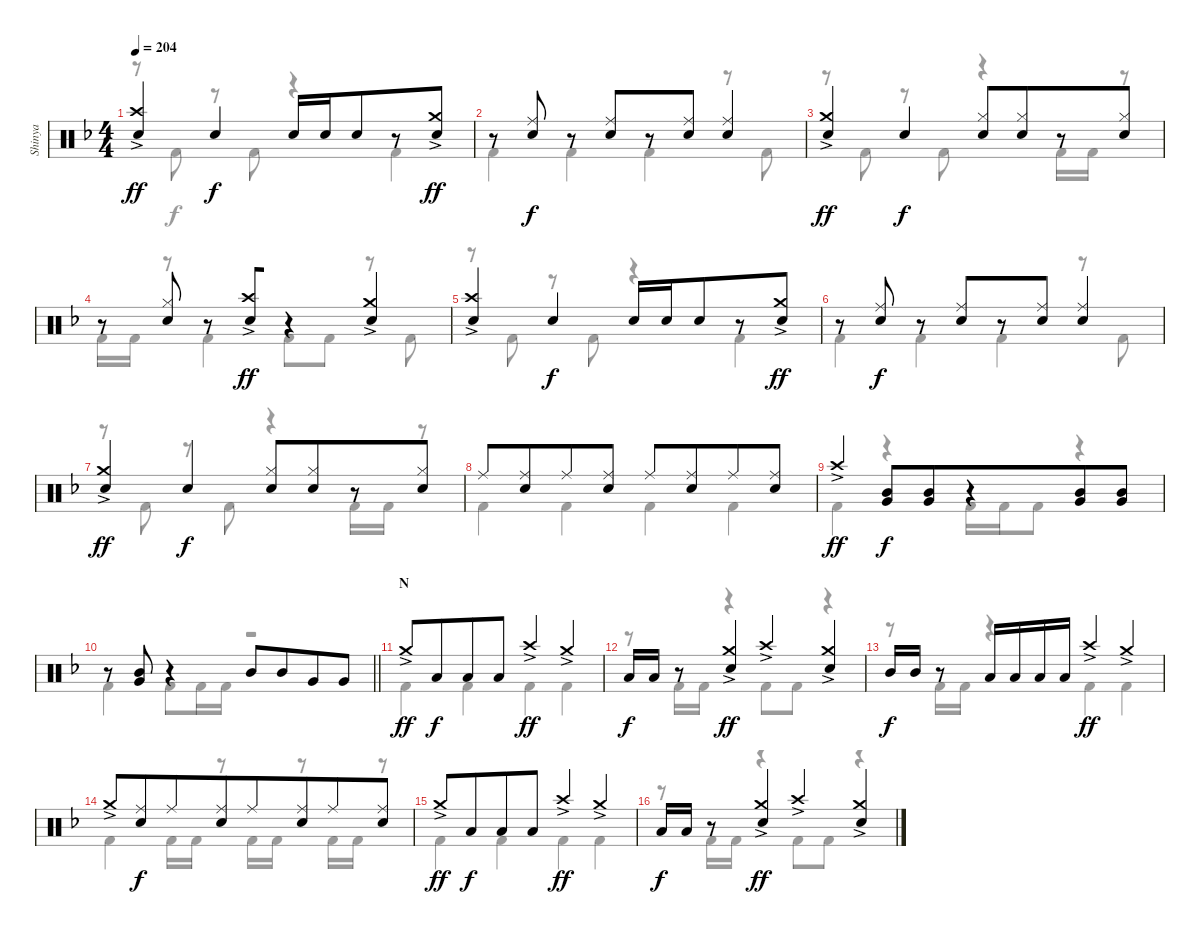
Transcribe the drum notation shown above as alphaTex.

\track ("Shinya" "Shinya") {mute instrument percussion}
\staff {score}
\articulation defaults
\voice
\ts (4 4)
\tempo 204
\clef neutral
\ks f
("Crash high (hit)"{ac} "Snare (hit) 2").4{dy ff} "Snare (hit) 2".4{dy f} "Snare (hit) 2".16{beam merge} "Snare (hit) 2".16 "Snare (hit) 2".8{beam merge} r.8 ("Crash medium (hit)"{ac} "Snare (hit) 2").8{dy ff} |
r.8 ("Ride (middle)" "Snare (hit) 2").8{dy f} r.8{beam merge} ("Ride (middle)" "Snare (hit) 2").8{beam merge} r.8 ("Ride (middle)" "Snare (hit) 2").8{beam merge} ("Ride (middle)" "Snare (hit) 2").4 |
("Crash medium (hit)"{ac} "Snare (hit) 2").4{dy ff} "Snare (hit) 2".4{dy f} ("Hi-Hat (closed)" "Snare (hit) 2").8 ("Hi-Hat (closed)" "Snare (hit) 2").8{beam merge} r.8 ("Hi-Hat (closed)" "Snare (hit) 2").8 |
r.8 ("Hi-Hat (closed)" "Snare (hit) 2").8 r.8{beam merge} ("Crash high (hit)"{ac} "Snare (hit) 2").8{dy ff beam merge} r.4 ("Crash medium (hit)"{ac} "Snare (hit) 2").4 |
("Crash high (hit)"{ac} "Snare (hit) 2").4 "Snare (hit) 2".4{dy f} "Snare (hit) 2".16{beam merge} "Snare (hit) 2".16 "Snare (hit) 2".8{beam merge} r.8 ("Crash medium (hit)"{ac} "Snare (hit) 2").8{dy ff} |
r.8 ("Ride (middle)" "Snare (hit) 2").8{dy f} r.8{beam merge} ("Ride (middle)" "Snare (hit) 2").8{beam merge} r.8 ("Ride (middle)" "Snare (hit) 2").8{beam merge} ("Ride (middle)" "Snare (hit) 2").4 |
("Crash medium (hit)"{ac} "Snare (hit) 2").4{dy ff beam merge} "Snare (hit) 2".4{dy f beam merge} ("Hi-Hat (closed)" "Snare (hit) 2").8 ("Hi-Hat (closed)" "Snare (hit) 2").8{beam merge} r.8 ("Hi-Hat (closed)" "Snare (hit) 2").8 |
"Ride (middle)".8 ("Ride (middle)" "Snare (hit) 2").8{beam merge} "Ride (middle)".8{beam merge} ("Ride (middle)" "Snare (hit) 2").8 "Ride (middle)".8 ("Ride (middle)" "Snare (hit) 2").8{beam merge} "Ride (middle)".8{beam merge} ("Ride (middle)" "Snare (hit) 2").8 |
"Crash high (hit)"{ac}.4{dy ff} ("Mid Tom (hit)" "Very Low Tom (hit)").8{dy f beam merge} ("Mid Tom (hit)" "Very Low Tom (hit)").8{beam merge} r.4 ("Mid Tom (hit)" "Very Low Tom (hit)").8{beam merge} ("Mid Tom (hit)" "Very Low Tom (hit)").8 |
\barLineRight lightlight
r.8 ("Mid Tom (hit)" "Very Low Tom (hit)").8 r.4{beam merge} "Mid Tom (hit)".8{beam merge} "Mid Tom (hit)".8{beam merge} "Very Low Tom (hit)".8{beam merge} "Very Low Tom (hit)".8 |
\section ("" "N")
"Crash medium (hit)"{ac}.8{dy ff} "Low Tom (hit)".8{dy f beam merge} "Low Tom (hit)".8{beam merge} "Low Tom (hit)".8{beam merge} "Crash high (hit)"{ac}.4{dy ff} "Crash medium (hit)"{ac}.4 |
"Low Tom (hit)".16{dy f} "Low Tom (hit)".16 r.8 ("Crash medium (hit)"{ac} "Snare (hit) 2").4{dy ff beam merge} "Crash high (hit)"{ac}.4 ("Crash medium (hit)"{ac} "Snare (hit) 2").4 |
"Mid Tom (hit)".16{dy f} "Mid Tom (hit)".16 r.8 "Low Tom (hit)".16{beam merge} "Low Tom (hit)".16 "Low Tom (hit)".16{beam merge} "Low Tom (hit)".16{beam merge} "Crash high (hit)"{ac}.4{dy ff} "Crash medium (hit)"{ac}.4 |
"Crash medium (hit)"{ac}.8 ("Ride (middle)" "Snare (hit) 2").8{dy f beam merge} "Ride (middle)".8{beam merge} ("Ride (middle)" "Snare (hit) 2").8{beam merge} "Ride (middle)".8 ("Ride (middle)" "Snare (hit) 2").8{beam merge} "Ride (middle)".8 ("Ride (middle)" "Snare (hit) 2").8 |
"Crash medium (hit)"{ac}.8{dy ff} "Low Tom (hit)".8{dy f beam merge} "Low Tom (hit)".8{beam merge} "Low Tom (hit)".8{beam merge} "Crash high (hit)"{ac}.4{dy ff} "Crash medium (hit)"{ac}.4 |
"Low Tom (hit)".16{dy f} "Low Tom (hit)".16 r.8 ("Crash medium (hit)"{ac} "Snare (hit) 2").4{dy ff beam merge} "Crash high (hit)"{ac}.4{beam merge} ("Crash medium (hit)"{ac} "Snare (hit) 2").4
\voice
\clef neutral
\ottava regular
\simile none
\ks f
r.8{dy f} "Kick (hit) 2".8 r.8 "Kick (hit) 2".8 r.4 "Kick (hit) 2".4 |
"Kick (hit) 2".4 "Kick (hit) 2".4 "Kick (hit) 2".4 r.8 "Kick (hit) 2".8 |
r.8 "Kick (hit) 2".8 r.8 "Kick (hit) 2".8 r.4 "Kick (hit) 2".16 "Kick (hit) 2".16 r.8 |
"Kick (hit) 2".16 "Kick (hit) 2".16 r.8 "Kick (hit) 2".4 "Kick (hit) 2".8 "Kick (hit) 2".8 r.8 "Kick (hit) 2".8 |
r.8 "Kick (hit) 2".8 r.8 "Kick (hit) 2".8 r.4 "Kick (hit) 2".4 |
"Kick (hit) 2".4 "Kick (hit) 2".4 "Kick (hit) 2".4 r.8 "Kick (hit) 2".8 |
r.8 "Kick (hit) 2".8 r.8 "Kick (hit) 2".8 r.4 "Kick (hit) 2".16 "Kick (hit) 2".16 r.8 |
"Kick (hit) 2".4 "Kick (hit) 2".4 "Kick (hit) 2".4 "Kick (hit) 2".4 |
"Kick (hit) 2".4 r.4 "Kick (hit) 2".16 "Kick (hit) 2".16 "Kick (hit) 2".8 r.4 |
\barLineRight lightlight "Kick (hit) 2".4 "Kick (hit) 2".8 "Kick (hit) 2".16 "Kick (hit) 2".16
r.2 |
"Kick (hit) 2".4 "Kick (hit) 2".4 "Kick (hit) 2".4 "Kick (hit) 2".4 |
r.8{beam merge} "Kick (hit) 2".16 "Kick (hit) 2".16 r.4 "Kick (hit) 2".8 "Kick (hit) 2".8 r.4 |
r.8{beam merge} "Kick (hit) 2".16 "Kick (hit) 2".16 r.4 "Kick (hit) 2".4 "Kick (hit) 2".4 |
"Kick (hit) 2".4 "Kick (hit) 2".16 "Kick (hit) 2".16 r.8 "Kick (hit) 2".16 "Kick (hit) 2".16 r.8 "Kick (hit) 2".16 "Kick (hit) 2".16 r.8 |
"Kick (hit) 2".4 "Kick (hit) 2".4 "Kick (hit) 2".4 "Kick (hit) 2".4 |
r.8 "Kick (hit) 2".16 "Kick (hit) 2".16 r.4 "Kick (hit) 2".8 "Kick (hit) 2".8 r.4
